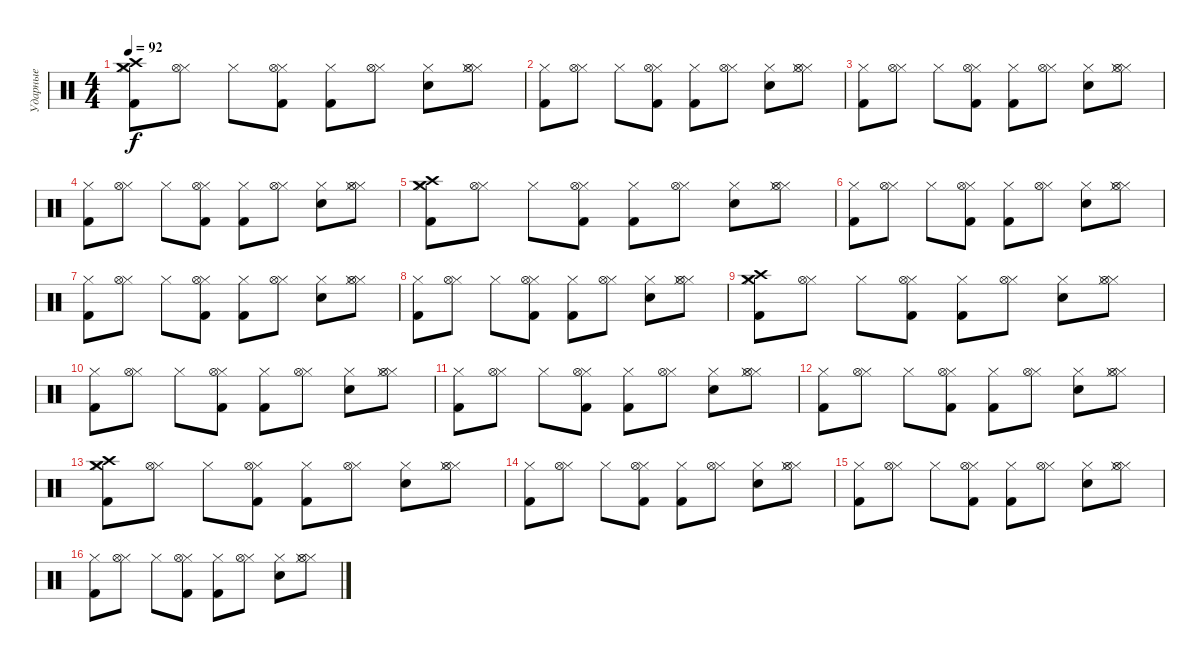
\track ("Ударные" "Ударные") {instrument percussion}
\staff {score}
\articulation defaults
\ts (4 4)
\tempo 92
\clef neutral
\ks c
("Kick (hit) 2" "Hi-Hat (closed)" "Crash high (hit)" "Crash medium (hit)").8{dy f} ("Hi-Hat (closed)" "Hi-Hat (open)").8 "Hi-Hat (closed)".8 ("Kick (hit) 2" "Hi-Hat (closed)" "Hi-Hat (open)").8 ("Kick (hit) 2" "Hi-Hat (closed)").8 ("Hi-Hat (closed)" "Hi-Hat (open)").8 ("Snare (hit) 2" "Hi-Hat (closed)").8 ("Hi-Hat (closed)" "Hi-Hat (closed)" "Hi-Hat (open)").8 |
("Kick (hit) 2" "Hi-Hat (closed)").8 ("Hi-Hat (closed)" "Hi-Hat (open)").8 "Hi-Hat (closed)".8 ("Kick (hit) 2" "Hi-Hat (closed)" "Hi-Hat (open)").8 ("Kick (hit) 2" "Hi-Hat (closed)").8 ("Hi-Hat (closed)" "Hi-Hat (open)").8 ("Snare (hit) 2" "Hi-Hat (closed)").8 ("Hi-Hat (closed)" "Hi-Hat (closed)" "Hi-Hat (open)").8 |
("Kick (hit) 2" "Hi-Hat (closed)").8 ("Hi-Hat (closed)" "Hi-Hat (open)").8 "Hi-Hat (closed)".8 ("Kick (hit) 2" "Hi-Hat (closed)" "Hi-Hat (open)").8 ("Kick (hit) 2" "Hi-Hat (closed)").8 ("Hi-Hat (closed)" "Hi-Hat (open)").8 ("Snare (hit) 2" "Hi-Hat (closed)").8 ("Hi-Hat (closed)" "Hi-Hat (closed)" "Hi-Hat (open)").8 |
("Kick (hit) 2" "Hi-Hat (closed)").8 ("Hi-Hat (closed)" "Hi-Hat (open)").8 "Hi-Hat (closed)".8 ("Kick (hit) 2" "Hi-Hat (closed)" "Hi-Hat (open)").8 ("Kick (hit) 2" "Hi-Hat (closed)").8 ("Hi-Hat (closed)" "Hi-Hat (open)").8 ("Snare (hit) 2" "Hi-Hat (closed)").8 ("Hi-Hat (closed)" "Hi-Hat (closed)" "Hi-Hat (open)").8 |
("Kick (hit) 2" "Hi-Hat (closed)" "Crash medium (hit)" "Crash high (hit)").8 ("Hi-Hat (closed)" "Hi-Hat (open)").8 "Hi-Hat (closed)".8 ("Kick (hit) 2" "Hi-Hat (closed)" "Hi-Hat (open)").8 ("Kick (hit) 2" "Hi-Hat (closed)").8 ("Hi-Hat (closed)" "Hi-Hat (open)").8 ("Snare (hit) 2" "Hi-Hat (closed)").8 ("Hi-Hat (closed)" "Hi-Hat (closed)" "Hi-Hat (open)").8 |
("Kick (hit) 2" "Hi-Hat (closed)").8 ("Hi-Hat (closed)" "Hi-Hat (open)").8 "Hi-Hat (closed)".8 ("Kick (hit) 2" "Hi-Hat (closed)" "Hi-Hat (open)").8 ("Kick (hit) 2" "Hi-Hat (closed)").8 ("Hi-Hat (closed)" "Hi-Hat (open)").8 ("Snare (hit) 2" "Hi-Hat (closed)").8 ("Hi-Hat (closed)" "Hi-Hat (closed)" "Hi-Hat (open)").8 |
("Kick (hit) 2" "Hi-Hat (closed)").8 ("Hi-Hat (closed)" "Hi-Hat (open)").8 "Hi-Hat (closed)".8 ("Kick (hit) 2" "Hi-Hat (closed)" "Hi-Hat (open)").8 ("Kick (hit) 2" "Hi-Hat (closed)").8 ("Hi-Hat (closed)" "Hi-Hat (open)").8 ("Snare (hit) 2" "Hi-Hat (closed)").8 ("Hi-Hat (closed)" "Hi-Hat (closed)" "Hi-Hat (open)").8 |
("Kick (hit) 2" "Hi-Hat (closed)").8 ("Hi-Hat (closed)" "Hi-Hat (open)").8 "Hi-Hat (closed)".8 ("Kick (hit) 2" "Hi-Hat (closed)" "Hi-Hat (open)").8 ("Kick (hit) 2" "Hi-Hat (closed)").8 ("Hi-Hat (closed)" "Hi-Hat (open)").8 ("Snare (hit) 2" "Hi-Hat (closed)").8 ("Hi-Hat (closed)" "Hi-Hat (closed)" "Hi-Hat (open)").8 |
("Kick (hit) 2" "Hi-Hat (closed)" "Crash medium (hit)" "Crash high (hit)").8 ("Hi-Hat (closed)" "Hi-Hat (open)").8 "Hi-Hat (closed)".8 ("Kick (hit) 2" "Hi-Hat (closed)" "Hi-Hat (open)").8 ("Kick (hit) 2" "Hi-Hat (closed)").8 ("Hi-Hat (closed)" "Hi-Hat (open)").8 ("Snare (hit) 2" "Hi-Hat (closed)").8 ("Hi-Hat (closed)" "Hi-Hat (closed)" "Hi-Hat (open)").8 |
("Kick (hit) 2" "Hi-Hat (closed)").8 ("Hi-Hat (closed)" "Hi-Hat (open)").8 "Hi-Hat (closed)".8 ("Kick (hit) 2" "Hi-Hat (closed)" "Hi-Hat (open)").8 ("Kick (hit) 2" "Hi-Hat (closed)").8 ("Hi-Hat (closed)" "Hi-Hat (open)").8 ("Snare (hit) 2" "Hi-Hat (closed)").8 ("Hi-Hat (closed)" "Hi-Hat (closed)" "Hi-Hat (open)").8 |
("Kick (hit) 2" "Hi-Hat (closed)").8 ("Hi-Hat (closed)" "Hi-Hat (open)").8 "Hi-Hat (closed)".8 ("Kick (hit) 2" "Hi-Hat (closed)" "Hi-Hat (open)").8 ("Kick (hit) 2" "Hi-Hat (closed)").8 ("Hi-Hat (closed)" "Hi-Hat (open)").8 ("Snare (hit) 2" "Hi-Hat (closed)").8 ("Hi-Hat (closed)" "Hi-Hat (closed)" "Hi-Hat (open)").8 |
("Kick (hit) 2" "Hi-Hat (closed)").8 ("Hi-Hat (closed)" "Hi-Hat (open)").8 "Hi-Hat (closed)".8 ("Kick (hit) 2" "Hi-Hat (closed)" "Hi-Hat (open)").8 ("Kick (hit) 2" "Hi-Hat (closed)").8 ("Hi-Hat (closed)" "Hi-Hat (open)").8 ("Snare (hit) 2" "Hi-Hat (closed)").8 ("Hi-Hat (closed)" "Hi-Hat (closed)" "Hi-Hat (open)").8 |
("Kick (hit) 2" "Hi-Hat (closed)" "Crash high (hit)" "Crash medium (hit)").8 ("Hi-Hat (closed)" "Hi-Hat (open)").8 "Hi-Hat (closed)".8 ("Kick (hit) 2" "Hi-Hat (closed)" "Hi-Hat (open)").8 ("Kick (hit) 2" "Hi-Hat (closed)").8 ("Hi-Hat (closed)" "Hi-Hat (open)").8 ("Snare (hit) 2" "Hi-Hat (closed)").8 ("Hi-Hat (closed)" "Hi-Hat (closed)" "Hi-Hat (open)").8 |
("Kick (hit) 2" "Hi-Hat (closed)").8 ("Hi-Hat (closed)" "Hi-Hat (open)").8 "Hi-Hat (closed)".8 ("Kick (hit) 2" "Hi-Hat (closed)" "Hi-Hat (open)").8 ("Kick (hit) 2" "Hi-Hat (closed)").8 ("Hi-Hat (closed)" "Hi-Hat (open)").8 ("Snare (hit) 2" "Hi-Hat (closed)").8 ("Hi-Hat (closed)" "Hi-Hat (closed)" "Hi-Hat (open)").8 |
("Kick (hit) 2" "Hi-Hat (closed)").8 ("Hi-Hat (closed)" "Hi-Hat (open)").8 "Hi-Hat (closed)".8 ("Kick (hit) 2" "Hi-Hat (closed)" "Hi-Hat (open)").8 ("Kick (hit) 2" "Hi-Hat (closed)").8 ("Hi-Hat (closed)" "Hi-Hat (open)").8 ("Snare (hit) 2" "Hi-Hat (closed)").8 ("Hi-Hat (closed)" "Hi-Hat (closed)" "Hi-Hat (open)").8 |
("Kick (hit) 2" "Hi-Hat (closed)").8 ("Hi-Hat (closed)" "Hi-Hat (open)").8 "Hi-Hat (closed)".8 ("Kick (hit) 2" "Hi-Hat (closed)" "Hi-Hat (open)").8 ("Kick (hit) 2" "Hi-Hat (closed)").8 ("Hi-Hat (closed)" "Hi-Hat (open)").8 ("Snare (hit) 2" "Hi-Hat (closed)").8 ("Hi-Hat (closed)" "Hi-Hat (closed)" "Hi-Hat (open)").8
